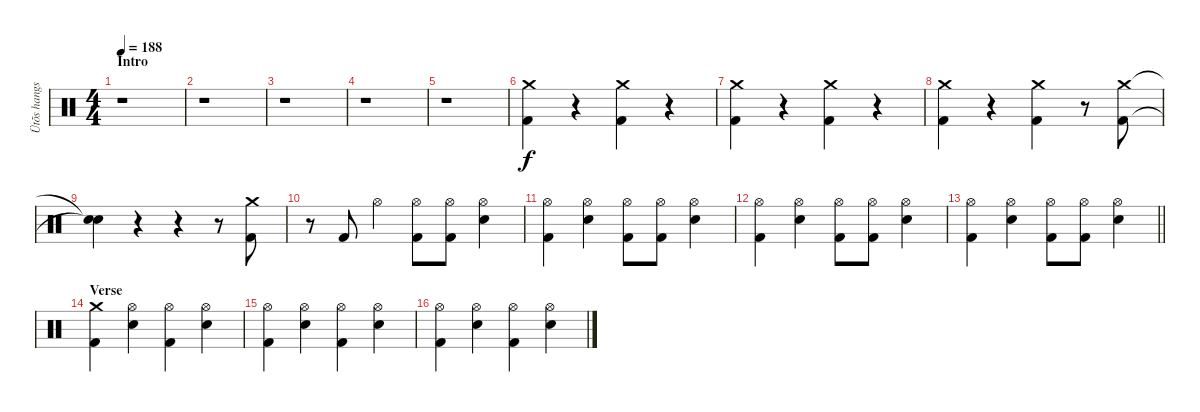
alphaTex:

\track ("Ütõs hangszer" "Ütõs hangs") {instrument percussion}
\staff {score}
\articulation defaults
\ts (4 4)
\section ("" "Intro")
\tempo 188
\clef neutral
\ks c
r.1{dy f} |
r.1 |
r.1 |
r.1 |
r.1 |
("Crash medium (hit)" "Kick (hit) 2").4{volume 16} r.4{volume 0} ("Crash medium (hit)" "Kick (hit) 2").4{volume 16} r.4{volume 0} |
("Crash medium (hit)" "Kick (hit) 2").4{volume 16} r.4{volume 0} ("Crash medium (hit)" "Kick (hit) 2").4{volume 16} r.4{volume 0} |
("Crash medium (hit)" "Kick (hit) 2").4{volume 16} r.4{volume 0} ("Crash medium (hit)" "Kick (hit) 2").4{volume 16} r.8{volume 0} ("Crash medium (hit)" "Kick (hit) 2").8{volume 16} |
("Snare (hit)"{t} "Snare (hit)"{t}).4 r.4 r.4 r.8 ("Crash medium (hit)" "Kick (hit) 2").8 |
r.8 "Kick (hit) 2".8 "Hi-Hat (open)".4 ("Hi-Hat (open)" "Kick (hit) 2").8 ("Hi-Hat (open)" "Kick (hit) 2").8 ("Hi-Hat (open)" "Electric Snare (hit)").4 |
("Hi-Hat (open)" "Kick (hit) 2").4 ("Hi-Hat (open)" "Electric Snare (hit)").4 ("Hi-Hat (open)" "Kick (hit) 2").8 ("Hi-Hat (open)" "Kick (hit) 2").8 ("Hi-Hat (open)" "Electric Snare (hit)").4 |
("Hi-Hat (open)" "Kick (hit) 2").4 ("Hi-Hat (open)" "Electric Snare (hit)").4 ("Hi-Hat (open)" "Kick (hit) 2").8 ("Hi-Hat (open)" "Kick (hit) 2").8 ("Hi-Hat (open)" "Electric Snare (hit)").4 |
\barLineRight lightlight
("Hi-Hat (open)" "Kick (hit) 2").4 ("Hi-Hat (open)" "Electric Snare (hit)").4 ("Hi-Hat (open)" "Kick (hit) 2").8 ("Hi-Hat (open)" "Kick (hit) 2").8 ("Hi-Hat (open)" "Electric Snare (hit)").4 |
\section ("" "Verse")
("Crash medium (hit)" "Kick (hit) 2").4 ("Hi-Hat (open)" "Electric Snare (hit)").4 ("Hi-Hat (open)" "Kick (hit) 2").4 ("Hi-Hat (open)" "Electric Snare (hit)").4 |
("Hi-Hat (open)" "Kick (hit) 2").4 ("Hi-Hat (open)" "Electric Snare (hit)").4 ("Hi-Hat (open)" "Kick (hit) 2").4 ("Hi-Hat (open)" "Electric Snare (hit)").4 |
("Hi-Hat (open)" "Kick (hit) 2").4 ("Hi-Hat (open)" "Electric Snare (hit)").4 ("Hi-Hat (open)" "Kick (hit) 2").4 ("Hi-Hat (open)" "Electric Snare (hit)").4
